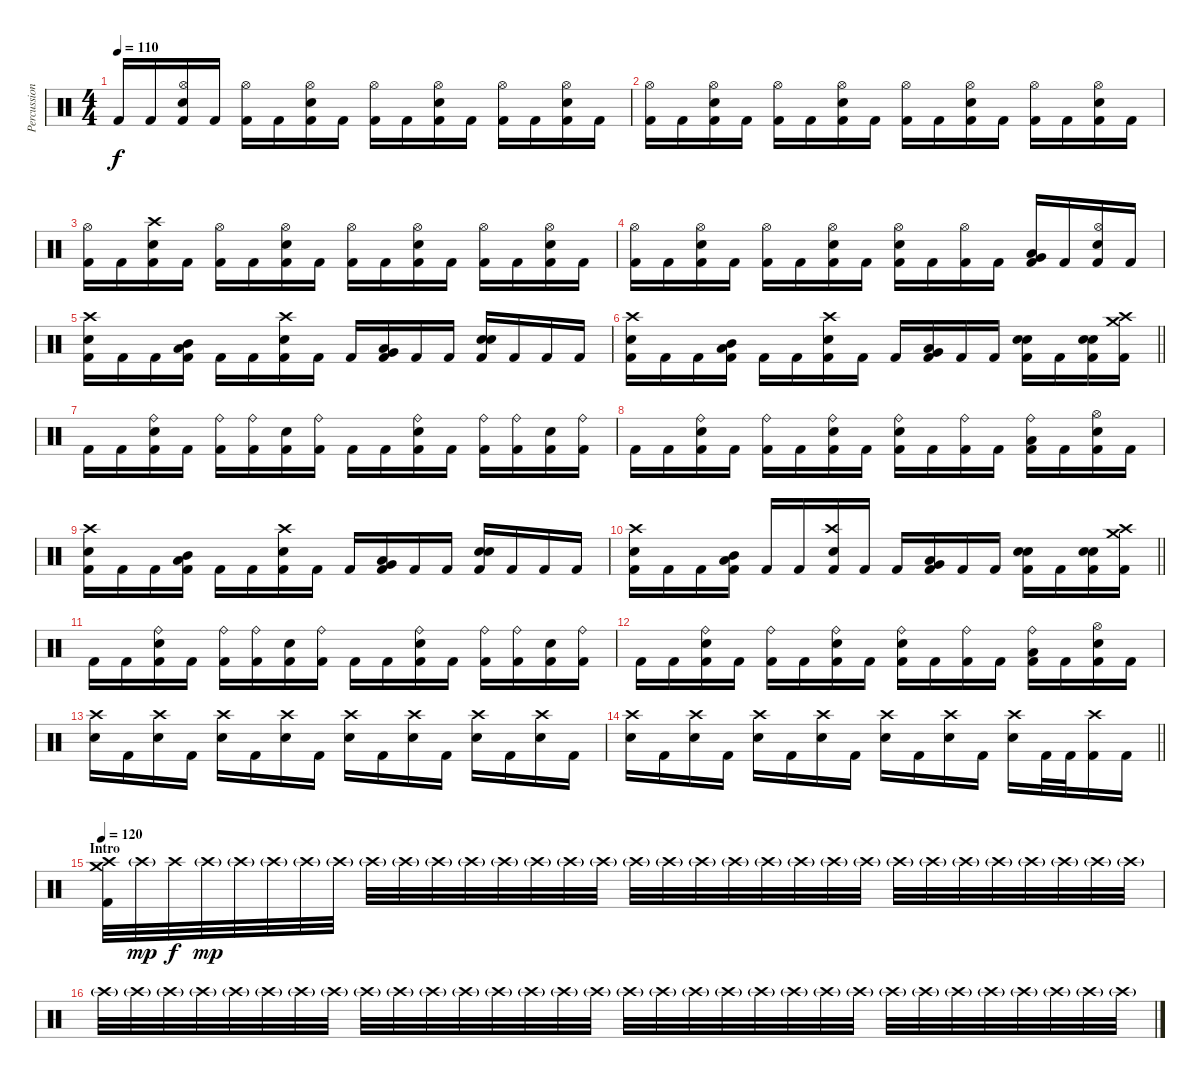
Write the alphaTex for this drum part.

\track ("Percussion" "Percussion") {instrument percussion}
\staff {score}
\articulation defaults
\ts (4 4)
\tempo 110
\clef neutral
\ks c "Kick (hit) 2".16{dy f} "Kick (hit) 2".16
("Hi-Hat (open)" "Electric Snare (hit)" "Kick (hit) 2").16 "Kick (hit) 2".16 ("Hi-Hat (open)" "Kick (hit) 2").16 "Kick (hit) 2".16 ("Hi-Hat (open)" "Electric Snare (hit)" "Kick (hit) 2").16 "Kick (hit) 2".16 ("Hi-Hat (open)" "Kick (hit) 2").16 "Kick (hit) 2".16 ("Hi-Hat (open)" "Electric Snare (hit)" "Kick (hit) 2").16 "Kick (hit) 2".16 ("Hi-Hat (open)" "Kick (hit) 2").16 "Kick (hit) 2".16 ("Hi-Hat (open)" "Electric Snare (hit)" "Kick (hit) 2").16 "Kick (hit) 2".16 |
("Hi-Hat (open)" "Kick (hit) 2").16 "Kick (hit) 2".16 ("Hi-Hat (open)" "Electric Snare (hit)" "Kick (hit) 2").16 "Kick (hit) 2".16 ("Hi-Hat (open)" "Kick (hit) 2").16 "Kick (hit) 2".16 ("Hi-Hat (open)" "Electric Snare (hit)" "Kick (hit) 2").16 "Kick (hit) 2".16 ("Hi-Hat (open)" "Kick (hit) 2").16 "Kick (hit) 2".16 ("Hi-Hat (open)" "Electric Snare (hit)" "Kick (hit) 2").16 "Kick (hit) 2".16 ("Hi-Hat (open)" "Kick (hit) 2").16 "Kick (hit) 2".16 ("Hi-Hat (open)" "Electric Snare (hit)" "Kick (hit) 2").16 "Kick (hit) 2".16 |
("Hi-Hat (open)" "Kick (hit) 2").16 "Kick (hit) 2".16 ("Crash high (hit)" "Electric Snare (hit)" "Kick (hit) 2").16 "Kick (hit) 2".16 ("Hi-Hat (open)" "Kick (hit) 2").16 "Kick (hit) 2".16 ("Hi-Hat (open)" "Electric Snare (hit)" "Kick (hit) 2").16 "Kick (hit) 2".16 ("Hi-Hat (open)" "Kick (hit) 2").16 "Kick (hit) 2".16 ("Hi-Hat (open)" "Electric Snare (hit)" "Kick (hit) 2").16 "Kick (hit) 2".16 ("Hi-Hat (open)" "Kick (hit) 2").16 "Kick (hit) 2".16 ("Hi-Hat (open)" "Electric Snare (hit)" "Kick (hit) 2").16 "Kick (hit) 2".16 |
("Hi-Hat (open)" "Kick (hit) 2").16 "Kick (hit) 2".16 ("Hi-Hat (open)" "Electric Snare (hit)" "Kick (hit) 2").16 "Kick (hit) 2".16 ("Hi-Hat (open)" "Kick (hit) 2").16 "Kick (hit) 2".16 ("Hi-Hat (open)" "Electric Snare (hit)" "Kick (hit) 2").16 "Kick (hit) 2".16 ("Hi-Hat (open)" "Electric Snare (hit)" "Kick (hit) 2").16 "Kick (hit) 2".16 ("Hi-Hat (open)" "Kick (hit) 2").16 "Kick (hit) 2".16 ("Low Tom (hit)" "Very Low Tom (hit)" "Kick (hit) 2").16 "Kick (hit) 2".16 ("Hi-Hat (open)" "Electric Snare (hit)" "Kick (hit) 2").16 "Kick (hit) 2".16 |
("Crash high (hit)" "Electric Snare (hit)" "Kick (hit) 2").16 "Kick (hit) 2".16 "Kick (hit) 2".16 ("Mid Tom (hit)" "Low Tom (hit)" "Kick (hit) 2").16 "Kick (hit) 2".16 "Kick (hit) 2".16 ("Crash high (hit)" "Electric Snare (hit)" "Kick (hit) 2").16 "Kick (hit) 2".16 "Kick (hit) 2".16 ("Low Tom (hit)" "Very Low Tom (hit)" "Kick (hit) 2").16 "Kick (hit) 2".16 "Kick (hit) 2".16 ("Electric Snare (hit)" "Electric Snare (hit)" "Kick (hit) 2").16 "Kick (hit) 2".16 "Kick (hit) 2".16 "Kick (hit) 2".16 |
\barLineRight lightlight
("Crash high (hit)" "Electric Snare (hit)" "Kick (hit) 2").16 "Kick (hit) 2".16 "Kick (hit) 2".16 ("Mid Tom (hit)" "Low Tom (hit)" "Kick (hit) 2").16 "Kick (hit) 2".16 "Kick (hit) 2".16 ("Crash high (hit)" "Electric Snare (hit)" "Kick (hit) 2").16 "Kick (hit) 2".16 "Kick (hit) 2".16 ("Low Tom (hit)" "Very Low Tom (hit)" "Kick (hit) 2").16 "Kick (hit) 2".16 "Kick (hit) 2".16 ("Electric Snare (hit)" "Electric Snare (hit)" "Kick (hit) 2").16 "Kick (hit) 2".16 ("Electric Snare (hit)" "Electric Snare (hit)" "Kick (hit) 2").16 ("Crash medium (hit)" "Crash high (hit)" "Kick (hit) 2").16 |
"Kick (hit) 2".16 "Kick (hit) 2".16 ("Ride (bell)" "Electric Snare (hit)" "Kick (hit) 2").16 "Kick (hit) 2".16 ("Ride (bell)" "Kick (hit) 2").16 ("Ride (bell)" "Kick (hit) 2").16 ("Electric Snare (hit)" "Kick (hit) 2").16 ("Ride (bell)" "Kick (hit) 2").16 "Kick (hit) 2".16 "Kick (hit) 2".16 ("Ride (bell)" "Electric Snare (hit)" "Kick (hit) 2").16 "Kick (hit) 2".16 ("Ride (bell)" "Kick (hit) 2").16 ("Ride (bell)" "Kick (hit) 2").16 ("Electric Snare (hit)" "Kick (hit) 2").16 ("Ride (bell)" "Kick (hit) 2").16 |
"Kick (hit) 2".16 "Kick (hit) 2".16 ("Ride (bell)" "Electric Snare (hit)" "Kick (hit) 2").16 "Kick (hit) 2".16 ("Ride (bell)" "Kick (hit) 2").16 "Kick (hit) 2".16 ("Ride (bell)" "Electric Snare (hit)" "Kick (hit) 2").16 "Kick (hit) 2".16 ("Ride (bell)" "Electric Snare (hit)" "Kick (hit) 2").16 "Kick (hit) 2".16 ("Ride (bell)" "Kick (hit) 2").16 "Kick (hit) 2".16 ("Ride (bell)" "Low Tom (hit)" "Kick (hit) 2").16 "Kick (hit) 2".16 ("Hi-Hat (open)" "Electric Snare (hit)" "Kick (hit) 2").16 "Kick (hit) 2".16 |
("Crash high (hit)" "Electric Snare (hit)" "Kick (hit) 2").16 "Kick (hit) 2".16 "Kick (hit) 2".16 ("Mid Tom (hit)" "Low Tom (hit)" "Kick (hit) 2").16 "Kick (hit) 2".16 "Kick (hit) 2".16 ("Crash high (hit)" "Electric Snare (hit)" "Kick (hit) 2").16 "Kick (hit) 2".16 "Kick (hit) 2".16 ("Low Tom (hit)" "Very Low Tom (hit)" "Kick (hit) 2").16 "Kick (hit) 2".16 "Kick (hit) 2".16 ("Electric Snare (hit)" "Electric Snare (hit)" "Kick (hit) 2").16 "Kick (hit) 2".16 "Kick (hit) 2".16 "Kick (hit) 2".16 |
\barLineRight lightlight
("Crash high (hit)" "Electric Snare (hit)" "Kick (hit) 2").16 "Kick (hit) 2".16 "Kick (hit) 2".16 ("Mid Tom (hit)" "Low Tom (hit)" "Kick (hit) 2").16 "Kick (hit) 2".16 "Kick (hit) 2".16 ("Crash high (hit)" "Snare (hit)" "Kick (hit) 2").16 "Kick (hit) 2".16 "Kick (hit) 2".16 ("Low Tom (hit)" "Very Low Tom (hit)" "Kick (hit) 2").16 "Kick (hit) 2".16 "Kick (hit) 2".16 ("Electric Snare (hit)" "Electric Snare (hit)" "Kick (hit) 2").16 "Kick (hit) 2".16 ("Electric Snare (hit)" "Electric Snare (hit)" "Kick (hit) 2").16 ("Crash medium (hit)" "Crash high (hit)" "Kick (hit) 2").16 |
"Kick (hit) 2".16 "Kick (hit) 2".16 ("Ride (bell)" "Electric Snare (hit)" "Kick (hit) 2").16 "Kick (hit) 2".16 ("Ride (bell)" "Kick (hit) 2").16 ("Ride (bell)" "Kick (hit) 2").16 ("Electric Snare (hit)" "Kick (hit) 2").16 ("Ride (bell)" "Kick (hit) 2").16 "Kick (hit) 2".16 "Kick (hit) 2".16 ("Ride (bell)" "Electric Snare (hit)" "Kick (hit) 2").16 "Kick (hit) 2".16 ("Ride (bell)" "Kick (hit) 2").16 ("Ride (bell)" "Kick (hit) 2").16 ("Electric Snare (hit)" "Kick (hit) 2").16 ("Ride (bell)" "Kick (hit) 2").16 |
"Kick (hit) 2".16 "Kick (hit) 2".16 ("Ride (bell)" "Electric Snare (hit)" "Kick (hit) 2").16 "Kick (hit) 2".16 ("Ride (bell)" "Kick (hit) 2").16 "Kick (hit) 2".16 ("Ride (bell)" "Electric Snare (hit)" "Kick (hit) 2").16 "Kick (hit) 2".16 ("Ride (bell)" "Electric Snare (hit)" "Kick (hit) 2").16 "Kick (hit) 2".16 ("Ride (bell)" "Kick (hit) 2").16 "Kick (hit) 2".16 ("Ride (bell)" "Low Tom (hit)" "Kick (hit) 2").16 "Kick (hit) 2".16 ("Hi-Hat (open)" "Electric Snare (hit)" "Kick (hit) 2").16 "Kick (hit) 2".16 |
("Crash high (hit)" "Electric Snare (hit)").16 "Kick (hit) 2".16 ("Crash high (hit)" "Electric Snare (hit)").16 "Kick (hit) 2".16 ("Crash high (hit)" "Electric Snare (hit)").16 "Kick (hit) 2".16 ("Crash high (hit)" "Electric Snare (hit)").16 "Kick (hit) 2".16 ("Crash high (hit)" "Electric Snare (hit)").16 "Kick (hit) 2".16 ("Crash high (hit)" "Electric Snare (hit)").16 "Kick (hit) 2".16 ("Crash high (hit)" "Electric Snare (hit)").16 "Kick (hit) 2".16 ("Crash high (hit)" "Electric Snare (hit)").16 "Kick (hit) 2".16 |
\barLineRight lightlight
("Crash high (hit)" "Electric Snare (hit)").16 "Kick (hit) 2".16 ("Crash high (hit)" "Electric Snare (hit)").16 "Kick (hit) 2".16 ("Crash high (hit)" "Electric Snare (hit)").16 "Kick (hit) 2".16 ("Crash high (hit)" "Electric Snare (hit)").16 "Kick (hit) 2".16 ("Crash high (hit)" "Electric Snare (hit)").16 "Kick (hit) 2".16 ("Crash high (hit)" "Electric Snare (hit)").16 "Kick (hit) 2".16 ("Crash high (hit)" "Electric Snare (hit)").16 "Kick (hit) 2".32 "Kick (hit) 2".32 ("Crash high (hit)" "Kick (hit) 2").16 "Kick (hit) 2".16 |
\section ("" "Intro")
\tempo 120
("Crash medium (hit)" "Crash high (hit)" "Kick (hit) 2").32 "Crash high (hit)"{g}.32{dy mp} "Crash high (hit)".32{dy f} "Crash high (hit)"{g}.32{dy mp} "Crash high (hit)"{g}.32 "Crash high (hit)"{g}.32 "Crash high (hit)"{g}.32 "Crash high (hit)"{g}.32 "Crash high (hit)"{g}.32 "Crash high (hit)"{g}.32 "Crash high (hit)"{g}.32 "Crash high (hit)"{g}.32 "Crash high (hit)"{g}.32 "Crash high (hit)"{g}.32 "Crash high (hit)"{g}.32 "Crash high (hit)"{g}.32 "Crash high (hit)"{g}.32 "Crash high (hit)"{g}.32 "Crash high (hit)"{g}.32 "Crash high (hit)"{g}.32 "Crash high (hit)"{g}.32 "Crash high (hit)"{g}.32 "Crash high (hit)"{g}.32 "Crash high (hit)"{g}.32 "Crash high (hit)"{g}.32 "Crash high (hit)"{g}.32 "Crash high (hit)"{g}.32 "Crash high (hit)"{g}.32 "Crash high (hit)"{g}.32 "Crash high (hit)"{g}.32 "Crash high (hit)"{g}.32 "Crash high (hit)"{g}.32 |
"Crash high (hit)"{g}.32 "Crash high (hit)"{g}.32 "Crash high (hit)"{g}.32 "Crash high (hit)"{g}.32 "Crash high (hit)"{g}.32 "Crash high (hit)"{g}.32 "Crash high (hit)"{g}.32 "Crash high (hit)"{g}.32 "Crash high (hit)"{g}.32 "Crash high (hit)"{g}.32 "Crash high (hit)"{g}.32 "Crash high (hit)"{g}.32 "Crash high (hit)"{g}.32 "Crash high (hit)"{g}.32 "Crash high (hit)"{g}.32 "Crash high (hit)"{g}.32 "Crash high (hit)"{g}.32 "Crash high (hit)"{g}.32 "Crash high (hit)"{g}.32 "Crash high (hit)"{g}.32 "Crash high (hit)"{g}.32 "Crash high (hit)"{g}.32 "Crash high (hit)"{g}.32 "Crash high (hit)"{g}.32 "Crash high (hit)"{g}.32 "Crash high (hit)"{g}.32 "Crash high (hit)"{g}.32 "Crash high (hit)"{g}.32 "Crash high (hit)"{g}.32 "Crash high (hit)"{g}.32 "Crash high (hit)"{g}.32 "Crash high (hit)"{g}.32
